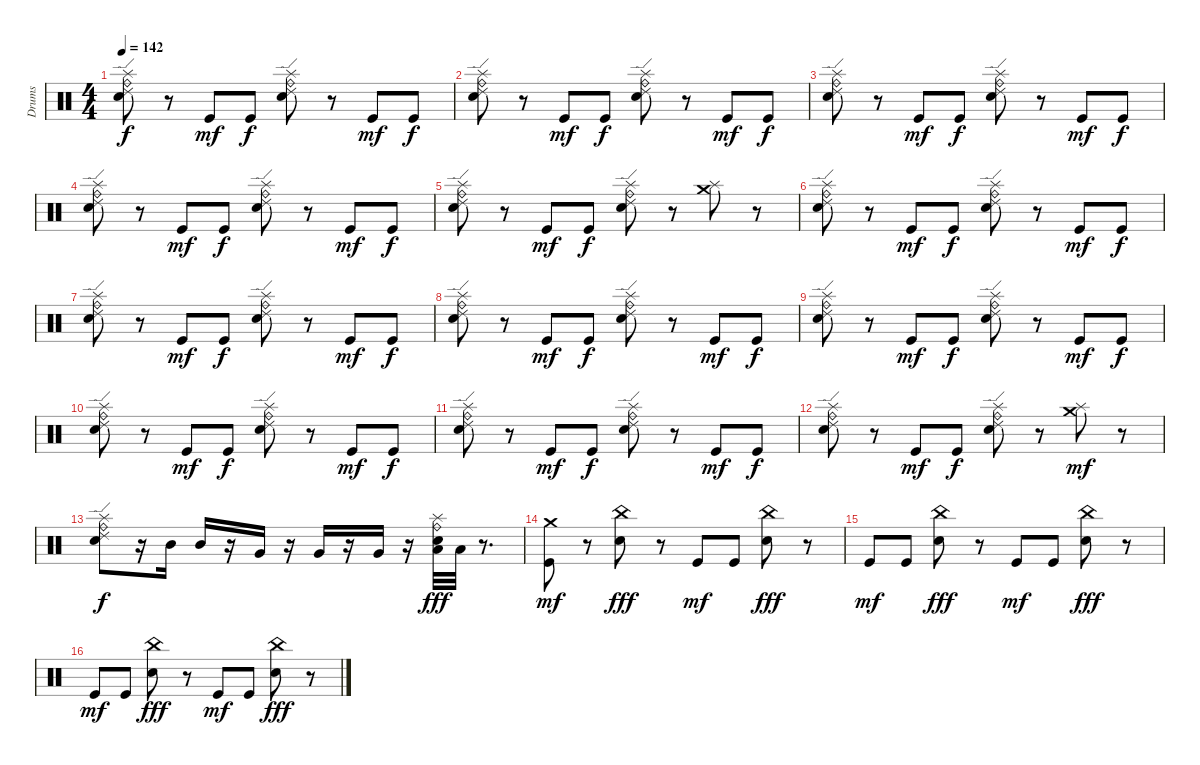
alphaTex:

\track ("Drums" "Drums") {instrument percussion}
\staff {score}
\articulation defaults
\ts (4 4)
\tempo 142
\clef neutral
\ks c
("Ride (edge) 2" "Ride (bell)" "Splash (hit)" "Electric Snare (hit)").8{dy f} r.8 "Kick (hit)".8{dy mf} "Kick (hit)".8{dy f} ("Ride (edge) 2" "Electric Snare (hit)" "Splash (hit)" "Ride (bell)").8 r.8 "Kick (hit)".8{dy mf} "Kick (hit)".8{dy f} |
("Ride (edge) 2" "Ride (bell)" "Splash (hit)" "Electric Snare (hit)").8 r.8 "Kick (hit)".8{dy mf} "Kick (hit)".8{dy f} ("Ride (edge) 2" "Electric Snare (hit)" "Splash (hit)" "Ride (bell)").8 r.8 "Kick (hit)".8{dy mf} "Kick (hit)".8{dy f} |
("Ride (edge) 2" "Ride (bell)" "Splash (hit)" "Electric Snare (hit)").8 r.8 "Kick (hit)".8{dy mf} "Kick (hit)".8{dy f} ("Ride (edge) 2" "Electric Snare (hit)" "Splash (hit)" "Ride (bell)").8 r.8 "Kick (hit)".8{dy mf} "Kick (hit)".8{dy f} |
("Ride (edge) 2" "Ride (bell)" "Splash (hit)" "Electric Snare (hit)").8 r.8 "Kick (hit)".8{dy mf} "Kick (hit)".8{dy f} ("Ride (edge) 2" "Electric Snare (hit)" "Splash (hit)" "Ride (bell)").8 r.8 "Kick (hit)".8{dy mf} "Kick (hit)".8{dy f} |
("Ride (edge) 2" "Ride (bell)" "Splash (hit)" "Electric Snare (hit)").8 r.8 "Kick (hit)".8{dy mf} "Kick (hit)".8{dy f} ("Ride (edge) 2" "Electric Snare (hit)" "Splash (hit)" "Ride (bell)").8 r.8 ("Splash (hit)" "Crash medium (hit)").8 r.8 |
("Ride (edge) 2" "Ride (bell)" "Splash (hit)" "Electric Snare (hit)").8 r.8 "Kick (hit)".8{dy mf} "Kick (hit)".8{dy f} ("Ride (edge) 2" "Electric Snare (hit)" "Splash (hit)" "Ride (bell)").8 r.8 "Kick (hit)".8{dy mf} "Kick (hit)".8{dy f} |
("Ride (edge) 2" "Ride (bell)" "Splash (hit)" "Electric Snare (hit)").8 r.8 "Kick (hit)".8{dy mf} "Kick (hit)".8{dy f} ("Ride (edge) 2" "Electric Snare (hit)" "Splash (hit)" "Ride (bell)").8 r.8 "Kick (hit)".8{dy mf} "Kick (hit)".8{dy f} |
("Ride (edge) 2" "Ride (bell)" "Splash (hit)" "Electric Snare (hit)").8 r.8 "Kick (hit)".8{dy mf} "Kick (hit)".8{dy f} ("Ride (edge) 2" "Electric Snare (hit)" "Splash (hit)" "Ride (bell)").8 r.8 "Kick (hit)".8{dy mf} "Kick (hit)".8{dy f} |
("Ride (edge) 2" "Ride (bell)" "Splash (hit)" "Electric Snare (hit)").8 r.8 "Kick (hit)".8{dy mf} "Kick (hit)".8{dy f} ("Ride (edge) 2" "Electric Snare (hit)" "Splash (hit)" "Ride (bell)").8 r.8 "Kick (hit)".8{dy mf} "Kick (hit)".8{dy f} |
("Ride (edge) 2" "Ride (bell)" "Splash (hit)" "Electric Snare (hit)").8 r.8 "Kick (hit)".8{dy mf} "Kick (hit)".8{dy f} ("Ride (edge) 2" "Electric Snare (hit)" "Splash (hit)" "Ride (bell)").8 r.8 "Kick (hit)".8{dy mf} "Kick (hit)".8{dy f} |
("Ride (edge) 2" "Ride (bell)" "Splash (hit)" "Electric Snare (hit)").8 r.8 "Kick (hit)".8{dy mf} "Kick (hit)".8{dy f} ("Ride (edge) 2" "Electric Snare (hit)" "Splash (hit)" "Ride (bell)").8 r.8 "Kick (hit)".8{dy mf} "Kick (hit)".8{dy f} |
("Ride (edge) 2" "Ride (bell)" "Splash (hit)" "Electric Snare (hit)").8 r.8 "Kick (hit)".8{dy mf} "Kick (hit)".8{dy f} ("Ride (edge) 2" "Electric Snare (hit)" "Splash (hit)" "Ride (bell)").8 r.8 ("Crash medium (hit)" "Splash (hit)").8{dy mf} r.8 |
("Ride (edge) 2" "Ride (bell)" "Splash (hit)" "Electric Snare (hit)").8{dy f} r.16 "Mid Tom (hit)".16 "Mid Tom (hit)".16 r.16 "Very Low Tom (hit)".16 r.16 "Very Low Tom (hit)".16 r.16 "Very Low Tom (hit)".16 r.16 ("Ride (bell)" "Splash (hit)" "Electric Snare (hit)" "Low Tom (hit)").32{dy fff} "Low Tom (hit)".32 r.8{d} |
("Crash medium (hit)" "Kick (hit)").8{dy mf} r.8 ("China (hit)" "Electric Snare (hit)").8{dy fff} r.8 "Kick (hit)".8{dy mf} "Kick (hit)".8 ("China (hit)" "Electric Snare (hit)").8{dy fff} r.8 |
"Kick (hit)".8{dy mf} "Kick (hit)".8 ("China (hit)" "Electric Snare (hit)").8{dy fff} r.8 "Kick (hit)".8{dy mf} "Kick (hit)".8 ("China (hit)" "Electric Snare (hit)").8{dy fff} r.8 |
"Kick (hit)".8{dy mf} "Kick (hit)".8 ("China (hit)" "Electric Snare (hit)").8{dy fff} r.8 "Kick (hit)".8{dy mf} "Kick (hit)".8 ("China (hit)" "Electric Snare (hit)").8{dy fff} r.8
